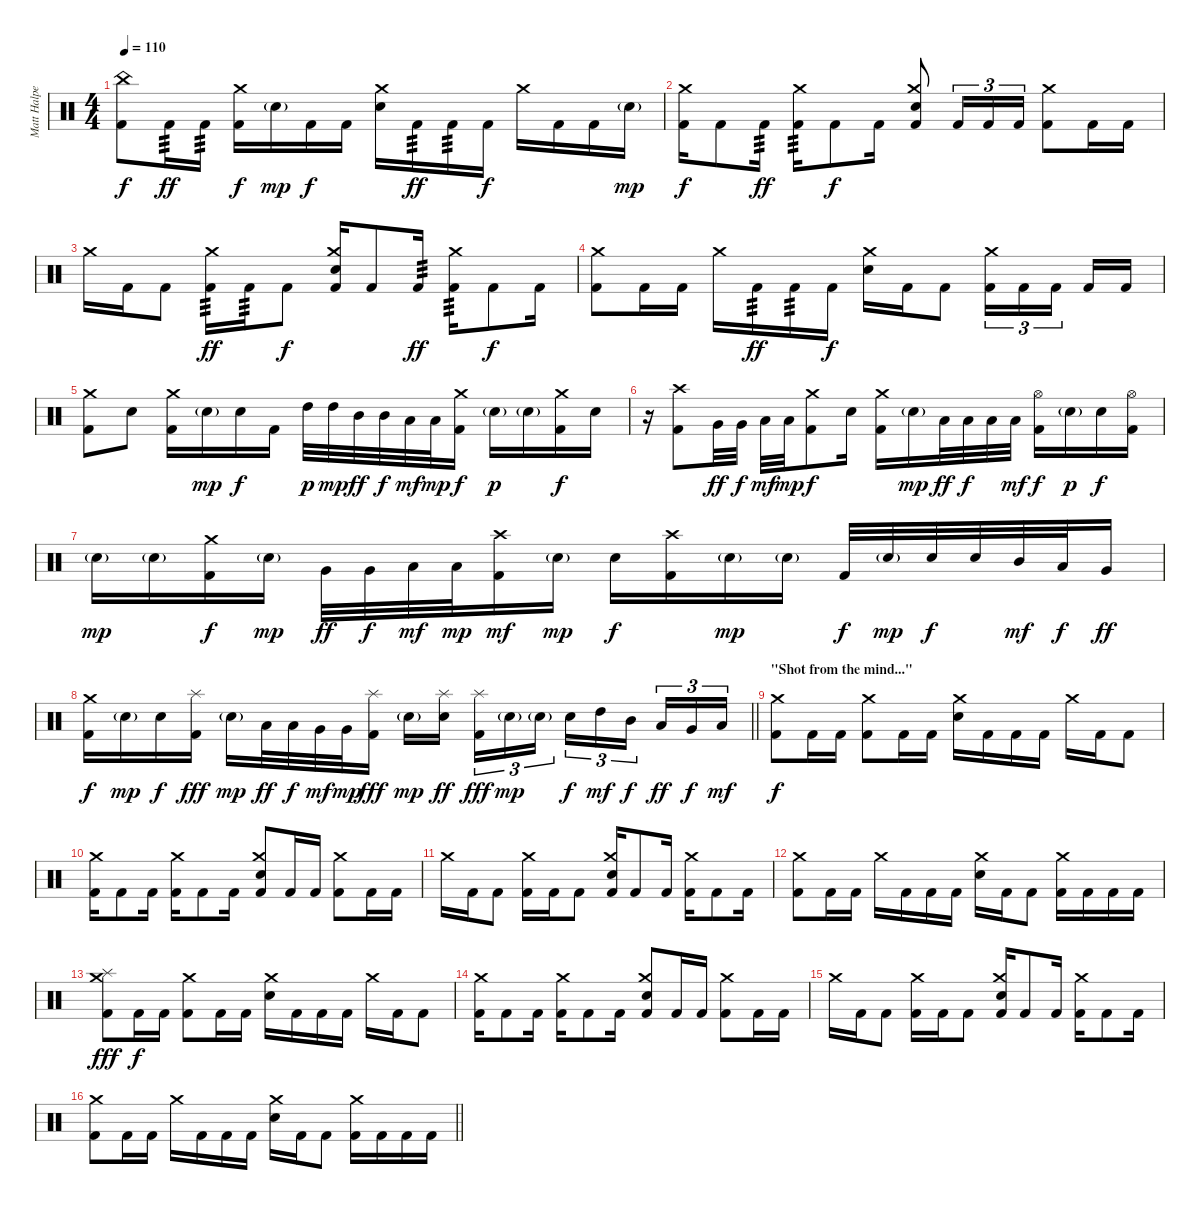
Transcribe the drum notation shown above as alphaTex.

\track ("Matt Halpern - Drums" "Matt Halpe") {instrument percussion}
\staff {score}
\articulation defaults
\ts (4 4)
\tempo 110
\clef neutral
\ks c
("China (hit)" "Kick (hit) 2").8{dy f} "Kick (hit) 2".16{tp 3 dy ff} "Kick (hit) 2".16{tp 3} ("Crash medium (hit)" "Kick (hit) 2").16{dy f} "Electric Snare (hit)"{g}.16{dy mp} "Kick (hit) 2".16{dy f} "Kick (hit) 2".16 ("Crash medium (hit)" "Electric Snare (hit)").16 "Kick (hit) 2".16{tp 3 dy ff} "Kick (hit) 2".16{tp 3} "Kick (hit) 2".16{dy f} "Crash medium (hit)".16 "Kick (hit) 2".16 "Kick (hit) 2".16 "Electric Snare (hit)"{g}.16{dy mp} |
("Crash medium (hit)" "Kick (hit) 2").16{dy f} "Kick (hit) 2".8 "Kick (hit) 2".16{tp 3 dy ff} ("Crash medium (hit)" "Kick (hit) 2").16{tp 3} "Kick (hit) 2".8{dy f} "Kick (hit) 2".16 ("Crash medium (hit)" "Electric Snare (hit)" "Kick (hit) 2").8 "Kick (hit) 2".16{tu (3 2)} "Kick (hit) 2".16{tu (3 2)} "Kick (hit) 2".16{tu (3 2)} ("Crash medium (hit)" "Kick (hit) 2").8 "Kick (hit) 2".16 "Kick (hit) 2".16 |
"Crash medium (hit)".16 "Kick (hit) 2".16 "Kick (hit) 2".8 ("Crash medium (hit)" "Kick (hit) 2").16{tp 3 dy ff} "Kick (hit) 2".16{tp 3} "Kick (hit) 2".8{dy f} ("Crash medium (hit)" "Electric Snare (hit)" "Kick (hit) 2").16 "Kick (hit) 2".8 "Kick (hit) 2".16{tp 3 dy ff} ("Crash medium (hit)" "Kick (hit) 2").16{tp 3} "Kick (hit) 2".8{dy f} "Kick (hit) 2".16 |
("Crash medium (hit)" "Kick (hit) 2").8 "Kick (hit) 2".16 "Kick (hit) 2".16 "Crash medium (hit)".16 "Kick (hit) 2".16{tp 3 dy ff} "Kick (hit) 2".16{tp 3} "Kick (hit) 2".16{dy f} ("Crash medium (hit)" "Electric Snare (hit)").16 "Kick (hit) 2".16 "Kick (hit) 2".8 ("Crash medium (hit)" "Kick (hit) 2").16{tu (3 2)} "Kick (hit) 2".16{tu (3 2)} "Kick (hit) 2".16{tu (3 2) beam splitsecondary} "Kick (hit) 2".16 "Kick (hit) 2".16 |
("Crash medium (hit)" "Kick (hit) 2").8 "Electric Snare (hit)".8 ("Crash medium (hit)" "Kick (hit) 2").16 "Electric Snare (hit)"{g}.16{dy mp} "Electric Snare (hit)".16{dy f} "Kick (hit) 2".16 "High Tom (hit)".32{dy p} "High Tom (hit)".32{dy mp} "Mid Tom (hit)".32{dy ff} "Mid Tom (hit)".32{dy f} "Low Tom (hit)".32{dy mf} "Low Tom (hit)".32{dy mp} ("Crash medium (hit)" "Kick (hit) 2").16{dy f} "Electric Snare (hit)"{g}.16{dy p} "Electric Snare (hit)"{g}.16 ("Crash medium (hit)" "Kick (hit) 2").16{dy f} "Electric Snare (hit)".16 |
r.16 ("Crash high (hit)" "Kick (hit) 2").8 "Very Low Tom (hit)".32{dy ff} "Very Low Tom (hit)".32{dy f} "Low Floor Tom (hit)".32{dy mf} "Low Floor Tom (hit)".32{dy mp} ("Crash medium (hit)" "Kick (hit) 2").8{dy f} "Electric Snare (hit)".16 ("Crash medium (hit)" "Kick (hit) 2").16 "Electric Snare (hit)"{g}.16{dy mp} "Low Floor Tom (hit)".32{dy ff} "Low Floor Tom (hit)".32{dy f} "Low Floor Tom (hit)".32 "Low Floor Tom (hit)".32{dy mf} ("Hi-Hat (open)" "Kick (hit) 2").16{dy f} "Electric Snare (hit)"{g}.16{dy p} "Electric Snare (hit)".16{dy f} ("Hi-Hat (open)" "Kick (hit) 2").16 |
"Electric Snare (hit)"{g}.16{dy mp} "Electric Snare (hit)"{g}.16 ("Crash medium (hit)" "Kick (hit) 2").16{dy f} "Electric Snare (hit)"{g}.16{dy mp} "Very Low Tom (hit)".32{dy ff} "Very Low Tom (hit)".32{dy f} "Low Floor Tom (hit)".32{dy mf} "Low Floor Tom (hit)".32{dy mp} ("Crash high (hit)" "Kick (hit) 2").16{dy mf} "Electric Snare (hit)"{g}.16{dy mp} "Electric Snare (hit)".16{dy f} ("Crash high (hit)" "Kick (hit) 2").16 "Electric Snare (hit)"{g}.16{dy mp} "Electric Snare (hit)"{g}.16 "Kick (hit) 2".32{dy f} "Electric Snare (hit)"{g}.32{dy mp} "Electric Snare (hit)".32{dy f} "Electric Snare (hit)".32 "Mid Tom (hit)".32{dy mf} "Low Tom (hit)".32{dy f} "Very Low Tom (hit)".16{dy ff} |
\barLineRight lightlight
("Crash medium (hit)" "Kick (hit) 2").16{dy f} "Electric Snare (hit)"{g}.16{dy mp} "Electric Snare (hit)".16{dy f} ("Splash (hit)" "Kick (hit) 2").16{dy fff} "Electric Snare (hit)"{g}.16{dy mp} "Low Tom (hit)".32{dy ff} "Low Tom (hit)".32{dy f} "Very Low Tom (hit)".32{dy mf} "Very Low Tom (hit)".32{dy mp} ("Splash (hit)" "Kick (hit) 2").16{dy fff} "Electric Snare (hit)"{g}.16{dy mp} ("Splash (hit)" "Electric Snare (hit)").16{dy ff beam splitsecondary} ("Splash (hit)" "Kick (hit) 2").16{tu (3 2) dy fff} "Electric Snare (hit)"{g}.16{tu (3 2) dy mp} "Electric Snare (hit)"{g}.16{tu (3 2)} "Electric Snare (hit)".16{tu (3 2) dy f} "High Tom (hit)".16{tu (3 2) dy mf} "Mid Tom (hit)".16{tu (3 2) dy f beam splitsecondary} "Low Tom (hit)".16{tu (3 2) dy ff} "Very Low Tom (hit)".16{tu (3 2) dy f} "Low Floor Tom (hit)".16{tu (3 2) dy mf} |
\section ("" "\"Shot from the mind...\"")
("Crash medium (hit)" "Kick (hit) 2").8{dy f} "Kick (hit) 2".16 "Kick (hit) 2".16 ("Crash medium (hit)" "Kick (hit) 2").8 "Kick (hit) 2".16 "Kick (hit) 2".16 ("Crash medium (hit)" "Electric Snare (hit)").16 "Kick (hit) 2".16 "Kick (hit) 2".16 "Kick (hit) 2".16 "Crash medium (hit)".16 "Kick (hit) 2".16 "Kick (hit) 2".8 |
("Crash medium (hit)" "Kick (hit) 2").16 "Kick (hit) 2".8 "Kick (hit) 2".16 ("Crash medium (hit)" "Kick (hit) 2").16 "Kick (hit) 2".8 "Kick (hit) 2".16 ("Crash medium (hit)" "Electric Snare (hit)" "Kick (hit) 2").8 "Kick (hit) 2".16 "Kick (hit) 2".16 ("Crash medium (hit)" "Kick (hit) 2").8 "Kick (hit) 2".16 "Kick (hit) 2".16 |
"Crash medium (hit)".16 "Kick (hit) 2".16 "Kick (hit) 2".8 ("Crash medium (hit)" "Kick (hit) 2").16 "Kick (hit) 2".16 "Kick (hit) 2".8 ("Crash medium (hit)" "Electric Snare (hit)" "Kick (hit) 2").16 "Kick (hit) 2".8 "Kick (hit) 2".16 ("Crash medium (hit)" "Kick (hit) 2").16 "Kick (hit) 2".8 "Kick (hit) 2".16 |
("Crash medium (hit)" "Kick (hit) 2").8 "Kick (hit) 2".16 "Kick (hit) 2".16 "Crash medium (hit)".16 "Kick (hit) 2".16 "Kick (hit) 2".16 "Kick (hit) 2".16 ("Crash medium (hit)" "Electric Snare (hit)").16 "Kick (hit) 2".16 "Kick (hit) 2".8 ("Crash medium (hit)" "Kick (hit) 2").16 "Kick (hit) 2".16 "Kick (hit) 2".16 "Kick (hit) 2".16 |
("Crash medium (hit)" "Splash (hit)" "Kick (hit) 2").8{dy fff} "Kick (hit) 2".16{dy f} "Kick (hit) 2".16 ("Crash medium (hit)" "Kick (hit) 2").8 "Kick (hit) 2".16 "Kick (hit) 2".16 ("Crash medium (hit)" "Electric Snare (hit)").16 "Kick (hit) 2".16 "Kick (hit) 2".16 "Kick (hit) 2".16 "Crash medium (hit)".16 "Kick (hit) 2".16 "Kick (hit) 2".8 |
("Crash medium (hit)" "Kick (hit) 2").16 "Kick (hit) 2".8 "Kick (hit) 2".16 ("Crash medium (hit)" "Kick (hit) 2").16 "Kick (hit) 2".8 "Kick (hit) 2".16 ("Crash medium (hit)" "Electric Snare (hit)" "Kick (hit) 2").8 "Kick (hit) 2".16 "Kick (hit) 2".16 ("Crash medium (hit)" "Kick (hit) 2").8 "Kick (hit) 2".16 "Kick (hit) 2".16 |
"Crash medium (hit)".16 "Kick (hit) 2".16 "Kick (hit) 2".8 ("Crash medium (hit)" "Kick (hit) 2").16 "Kick (hit) 2".16 "Kick (hit) 2".8 ("Crash medium (hit)" "Electric Snare (hit)" "Kick (hit) 2").16 "Kick (hit) 2".8 "Kick (hit) 2".16 ("Crash medium (hit)" "Kick (hit) 2").16 "Kick (hit) 2".8 "Kick (hit) 2".16 |
\barLineRight lightlight
("Crash medium (hit)" "Kick (hit) 2").8 "Kick (hit) 2".16 "Kick (hit) 2".16 "Crash medium (hit)".16 "Kick (hit) 2".16 "Kick (hit) 2".16 "Kick (hit) 2".16 ("Crash medium (hit)" "Electric Snare (hit)").16 "Kick (hit) 2".16 "Kick (hit) 2".8 ("Crash medium (hit)" "Kick (hit) 2").16 "Kick (hit) 2".16 "Kick (hit) 2".16 "Kick (hit) 2".16
